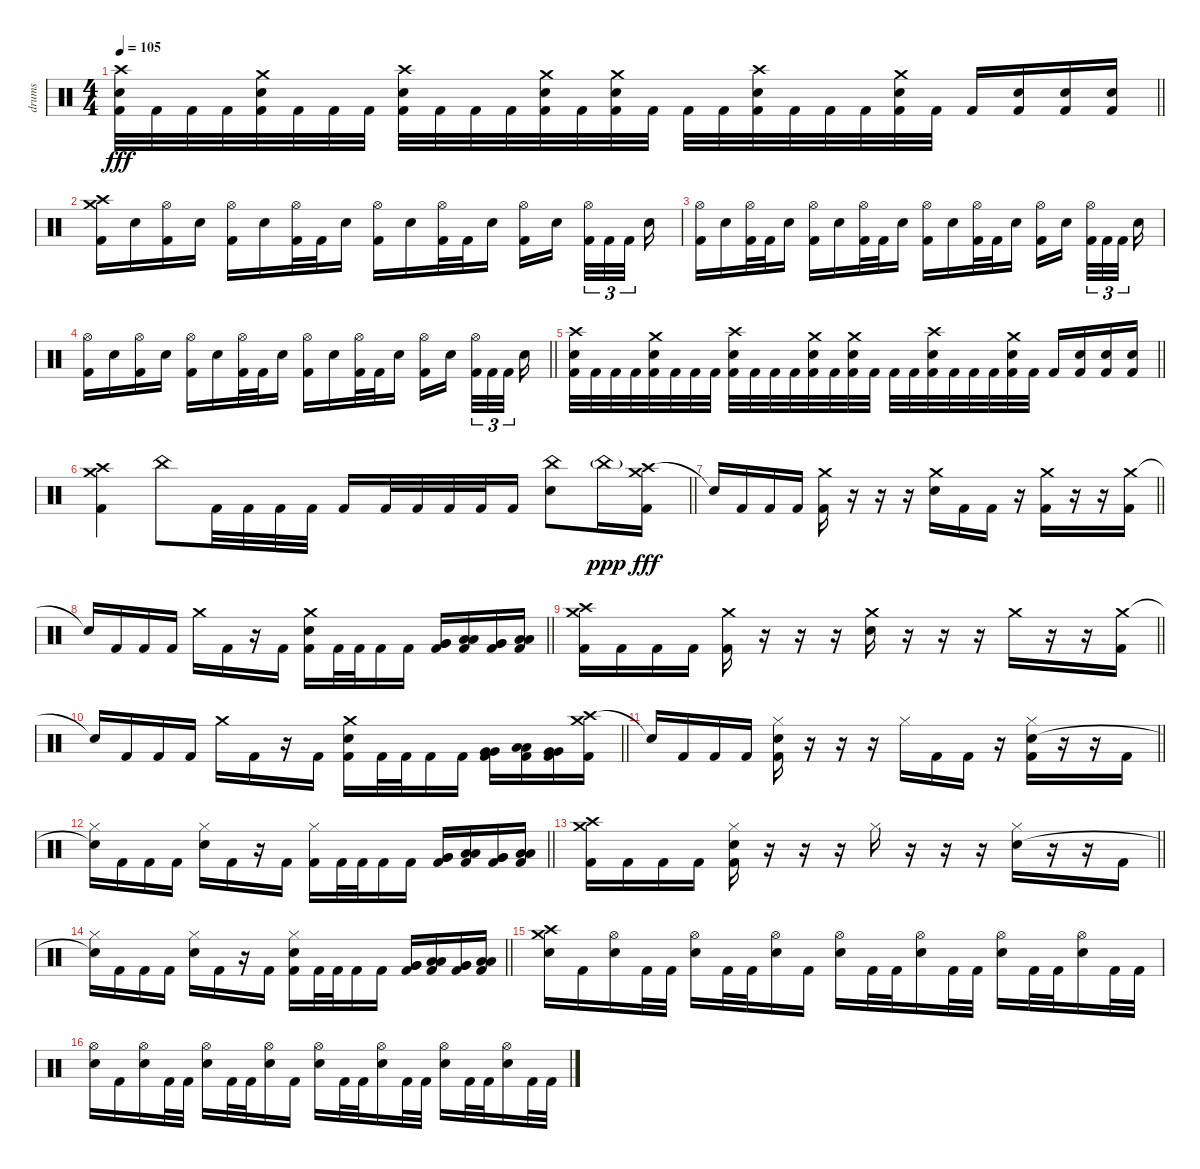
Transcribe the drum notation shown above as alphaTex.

\track ("drums" "drums") {instrument percussion}
\staff {score}
\articulation defaults
\ts (4 4)
\tempo 105
\clef neutral
\barLineRight lightlight
\ks c
("Crash high (hit)" "Electric Snare (hit)" "Kick (hit) 2").32{dy fff} "Kick (hit) 2".32 "Kick (hit) 2".32 "Kick (hit) 2".32 ("Crash medium (hit)" "Electric Snare (hit)" "Kick (hit) 2").32 "Kick (hit) 2".32 "Kick (hit) 2".32 "Kick (hit) 2".32 ("Crash high (hit)" "Electric Snare (hit)" "Kick (hit) 2").32 "Kick (hit) 2".32 "Kick (hit) 2".32 "Kick (hit) 2".32 ("Crash medium (hit)" "Electric Snare (hit)" "Kick (hit) 2").32 "Kick (hit) 2".32 ("Crash medium (hit)" "Electric Snare (hit)" "Kick (hit) 2").32 "Kick (hit) 2".32 "Kick (hit) 2".32 "Kick (hit) 2".32 ("Crash high (hit)" "Electric Snare (hit)" "Kick (hit) 2").32 "Kick (hit) 2".32 "Kick (hit) 2".32 "Kick (hit) 2".32 ("Crash medium (hit)" "Electric Snare (hit)" "Kick (hit) 2").32 "Kick (hit) 2".32 "Kick (hit) 2".16 ("Electric Snare (hit)" "Kick (hit) 2").16 ("Electric Snare (hit)" "Kick (hit) 2").16 ("Electric Snare (hit)" "Kick (hit) 2").16 |
("Crash high (hit)" "Crash medium (hit)" "Kick (hit) 2").16 "Electric Snare (hit)".16 ("Hi-Hat (open)" "Kick (hit) 2").16 "Electric Snare (hit)".16 ("Hi-Hat (open)" "Kick (hit) 2").16 "Electric Snare (hit)".16 ("Hi-Hat (open)" "Kick (hit) 2").32 "Kick (hit) 2".32 "Electric Snare (hit)".16 ("Hi-Hat (open)" "Kick (hit) 2").16 "Electric Snare (hit)".16 ("Hi-Hat (open)" "Kick (hit) 2").32 "Kick (hit) 2".32 "Electric Snare (hit)".16 ("Hi-Hat (open)" "Kick (hit) 2").16 "Electric Snare (hit)".16{beam splitsecondary} ("Hi-Hat (open)" "Kick (hit) 2").32{tu (3 2)} "Kick (hit) 2".32{tu (3 2)} "Kick (hit) 2".32{tu (3 2) beam splitsecondary} "Electric Snare (hit)".16 |
("Hi-Hat (open)" "Kick (hit) 2").16 "Electric Snare (hit)".16 ("Hi-Hat (open)" "Kick (hit) 2").32 "Kick (hit) 2".32 "Electric Snare (hit)".16 ("Hi-Hat (open)" "Kick (hit) 2").16 "Electric Snare (hit)".16 ("Hi-Hat (open)" "Kick (hit) 2").32 "Kick (hit) 2".32 "Electric Snare (hit)".16 ("Hi-Hat (open)" "Kick (hit) 2").16 "Electric Snare (hit)".16 ("Hi-Hat (open)" "Kick (hit) 2").32 "Kick (hit) 2".32 "Electric Snare (hit)".16 ("Hi-Hat (open)" "Kick (hit) 2").16 "Electric Snare (hit)".16{beam splitsecondary} ("Hi-Hat (open)" "Kick (hit) 2").32{tu (3 2)} "Kick (hit) 2".32{tu (3 2)} "Kick (hit) 2".32{tu (3 2) beam splitsecondary} "Electric Snare (hit)".16 |
\barLineRight lightlight
("Hi-Hat (open)" "Kick (hit) 2").16 "Electric Snare (hit)".16 ("Hi-Hat (open)" "Kick (hit) 2").16 "Electric Snare (hit)".16 ("Hi-Hat (open)" "Kick (hit) 2").16 "Electric Snare (hit)".16 ("Hi-Hat (open)" "Kick (hit) 2").32 "Kick (hit) 2".32 "Electric Snare (hit)".16 ("Hi-Hat (open)" "Kick (hit) 2").16 "Electric Snare (hit)".16 ("Hi-Hat (open)" "Kick (hit) 2").32 "Kick (hit) 2".32 "Electric Snare (hit)".16 ("Hi-Hat (open)" "Kick (hit) 2").16 "Electric Snare (hit)".16{beam splitsecondary} ("Hi-Hat (open)" "Kick (hit) 2").32{tu (3 2)} "Kick (hit) 2".32{tu (3 2)} "Kick (hit) 2".32{tu (3 2) beam splitsecondary} "Electric Snare (hit)".16 |
\barLineRight lightlight
("Crash high (hit)" "Electric Snare (hit)" "Kick (hit) 2").32 "Kick (hit) 2".32 "Kick (hit) 2".32 "Kick (hit) 2".32 ("Crash medium (hit)" "Electric Snare (hit)" "Kick (hit) 2").32 "Kick (hit) 2".32 "Kick (hit) 2".32 "Kick (hit) 2".32 ("Crash high (hit)" "Electric Snare (hit)" "Kick (hit) 2").32 "Kick (hit) 2".32 "Kick (hit) 2".32 "Kick (hit) 2".32 ("Crash medium (hit)" "Electric Snare (hit)" "Kick (hit) 2").32 "Kick (hit) 2".32 ("Crash medium (hit)" "Electric Snare (hit)" "Kick (hit) 2").32 "Kick (hit) 2".32 "Kick (hit) 2".32 "Kick (hit) 2".32 ("Crash high (hit)" "Electric Snare (hit)" "Kick (hit) 2").32 "Kick (hit) 2".32 "Kick (hit) 2".32 "Kick (hit) 2".32 ("Crash medium (hit)" "Electric Snare (hit)" "Kick (hit) 2").32 "Kick (hit) 2".32 "Kick (hit) 2".16 ("Electric Snare (hit)" "Kick (hit) 2").16 ("Electric Snare (hit)" "Kick (hit) 2").16 ("Electric Snare (hit)" "Kick (hit) 2").16 |
\barLineRight lightlight
("Crash high (hit)" "Crash medium (hit)" "Kick (hit) 2").4 "China (hit)".8 "Kick (hit) 2".32 "Kick (hit) 2".32 "Kick (hit) 2".32 "Kick (hit) 2".32 "Kick (hit) 2".16 "Kick (hit) 2".32 "Kick (hit) 2".32 "Kick (hit) 2".32 "Kick (hit) 2".32 "Kick (hit) 2".16 ("China (hit)" "Electric Snare (hit)").8 "China (hit)"{g}.16{dy ppp} ("Crash high (hit)" "Crash medium (hit)" "Kick (hit) 2").16{dy fff} |
\section ("" "")
\barLineRight lightlight "Snare (hit)"{t}.16 "Kick (hit) 2".16 "Kick (hit) 2".16 "Kick (hit) 2".16
("Crash medium (hit)" "Kick (hit) 2").16 r.16 r.16 r.16 ("Crash medium (hit)" "Electric Snare (hit)").16 "Kick (hit) 2".16 "Kick (hit) 2".16 r.16 ("Crash medium (hit)" "Kick (hit) 2").16 r.16 r.16 ("Crash medium (hit)" "Kick (hit) 2").16 |
\barLineRight lightlight "Snare (hit)"{t}.16 "Kick (hit) 2".16 "Kick (hit) 2".16 "Kick (hit) 2".16 "Crash medium (hit)".16 "Kick (hit) 2".16
r.16 "Kick (hit) 2".16 ("Crash medium (hit)" "Electric Snare (hit)" "Kick (hit) 2").16 "Kick (hit) 2".32 "Kick (hit) 2".32 "Kick (hit) 2".16 "Kick (hit) 2".16 ("Very Low Tom (hit)" "Very Low Tom (hit)" "Kick (hit) 2").16 ("Low Floor Tom (hit)" "Low Floor Tom (hit)" "Kick (hit) 2").16 ("Very Low Tom (hit)" "Very Low Tom (hit)" "Kick (hit) 2").16 ("Low Floor Tom (hit)" "Low Floor Tom (hit)" "Kick (hit) 2").16 |
\barLineRight lightlight
("Crash high (hit)" "Crash medium (hit)" "Kick (hit) 2").16 "Kick (hit) 2".16 "Kick (hit) 2".16 "Kick (hit) 2".16 ("Crash medium (hit)" "Kick (hit) 2").16 r.16 r.16 r.16 ("Crash medium (hit)" "Electric Snare (hit)").16 r.16 r.16 r.16 "Crash medium (hit)".16 r.16 r.16 ("Crash medium (hit)" "Kick (hit) 2").16 |
\barLineRight lightlight "Snare (hit)"{t}.16 "Kick (hit) 2".16 "Kick (hit) 2".16 "Kick (hit) 2".16 "Crash medium (hit)".16 "Kick (hit) 2".16
r.16 "Kick (hit) 2".16 ("Crash medium (hit)" "Electric Snare (hit)" "Kick (hit) 2").16 "Kick (hit) 2".32 "Kick (hit) 2".32 "Kick (hit) 2".16 "Kick (hit) 2".16 ("Very Low Tom (hit)" "Very Low Tom (hit)" "Kick (hit) 2").16 ("Low Floor Tom (hit)" "Low Floor Tom (hit)" "Kick (hit) 2").16 ("Very Low Tom (hit)" "Very Low Tom (hit)" "Kick (hit) 2").16 ("Crash high (hit)" "Crash medium (hit)" "Kick (hit) 2").16 |
\barLineRight lightlight "Snare (hit)"{t}.16 "Kick (hit) 2".16 "Kick (hit) 2".16 "Kick (hit) 2".16
("Hi-Hat (closed)" "Electric Snare (hit)" "Kick (hit) 2").16 r.16 r.16 r.16 "Hi-Hat (closed)".16 "Kick (hit) 2".16 "Kick (hit) 2".16 r.16 ("Hi-Hat (closed)" "Electric Snare (hit)" "Kick (hit) 2").16 r.16 r.16 "Kick (hit) 2".16 |
\barLineRight lightlight
("Hi-Hat (closed)" "Snare (hit)"{t}).16 "Kick (hit) 2".16 "Kick (hit) 2".16 "Kick (hit) 2".16 ("Hi-Hat (closed)" "Electric Snare (hit)").16 "Kick (hit) 2".16 r.16 "Kick (hit) 2".16 ("Hi-Hat (closed)" "Kick (hit) 2").16 "Kick (hit) 2".32 "Kick (hit) 2".32 "Kick (hit) 2".16 "Kick (hit) 2".16 ("Very Low Tom (hit)" "Very Low Tom (hit)" "Kick (hit) 2").16 ("Low Floor Tom (hit)" "Low Floor Tom (hit)" "Kick (hit) 2").16 ("Very Low Tom (hit)" "Very Low Tom (hit)" "Kick (hit) 2").16 ("Low Floor Tom (hit)" "Low Floor Tom (hit)" "Kick (hit) 2").16 |
\barLineRight lightlight
("Crash high (hit)" "Crash medium (hit)" "Kick (hit) 2").16 "Kick (hit) 2".16 "Kick (hit) 2".16 "Kick (hit) 2".16 ("Hi-Hat (closed)" "Electric Snare (hit)" "Kick (hit) 2").16 r.16 r.16 r.16 "Hi-Hat (closed)".16 r.16 r.16 r.16 ("Hi-Hat (closed)" "Electric Snare (hit)").16 r.16 r.16 "Kick (hit) 2".16 |
\barLineRight lightlight
("Hi-Hat (closed)" "Snare (hit)"{t}).16 "Kick (hit) 2".16 "Kick (hit) 2".16 "Kick (hit) 2".16 ("Hi-Hat (closed)" "Electric Snare (hit)").16 "Kick (hit) 2".16 r.16 "Kick (hit) 2".16 ("Hi-Hat (closed)" "Electric Snare (hit)" "Kick (hit) 2").16 "Kick (hit) 2".32 "Kick (hit) 2".32 "Kick (hit) 2".16 "Kick (hit) 2".16 ("Very Low Tom (hit)" "Very Low Tom (hit)" "Kick (hit) 2").16 ("Low Floor Tom (hit)" "Low Floor Tom (hit)" "Kick (hit) 2").16 ("Very Low Tom (hit)" "Very Low Tom (hit)" "Kick (hit) 2").16 ("Low Floor Tom (hit)" "Low Floor Tom (hit)" "Kick (hit) 2").16 |
\section ("" "")
("Crash high (hit)" "Crash medium (hit)" "Electric Snare (hit)").16 "Kick (hit) 2".16 ("Hi-Hat (open)" "Electric Snare (hit)").16 "Kick (hit) 2".32 "Kick (hit) 2".32 ("Hi-Hat (open)" "Electric Snare (hit)").16 "Kick (hit) 2".32 "Kick (hit) 2".32 ("Hi-Hat (open)" "Electric Snare (hit)").16 "Kick (hit) 2".16 ("Hi-Hat (open)" "Electric Snare (hit)").16 "Kick (hit) 2".32 "Kick (hit) 2".32 ("Hi-Hat (open)" "Electric Snare (hit)").16 "Kick (hit) 2".32 "Kick (hit) 2".32 ("Hi-Hat (open)" "Electric Snare (hit)").16 "Kick (hit) 2".32 "Kick (hit) 2".32 ("Hi-Hat (open)" "Electric Snare (hit)").16 "Kick (hit) 2".32 "Kick (hit) 2".32 |
("Hi-Hat (open)" "Electric Snare (hit)").16 "Kick (hit) 2".16 ("Hi-Hat (open)" "Electric Snare (hit)").16 "Kick (hit) 2".32 "Kick (hit) 2".32 ("Hi-Hat (open)" "Electric Snare (hit)").16 "Kick (hit) 2".32 "Kick (hit) 2".32 ("Hi-Hat (open)" "Electric Snare (hit)").16 "Kick (hit) 2".16 ("Hi-Hat (open)" "Electric Snare (hit)").16 "Kick (hit) 2".32 "Kick (hit) 2".32 ("Hi-Hat (open)" "Electric Snare (hit)").16 "Kick (hit) 2".32 "Kick (hit) 2".32 ("Hi-Hat (open)" "Electric Snare (hit)").16 "Kick (hit) 2".32 "Kick (hit) 2".32 ("Hi-Hat (open)" "Electric Snare (hit)").16 "Kick (hit) 2".32 "Kick (hit) 2".32
